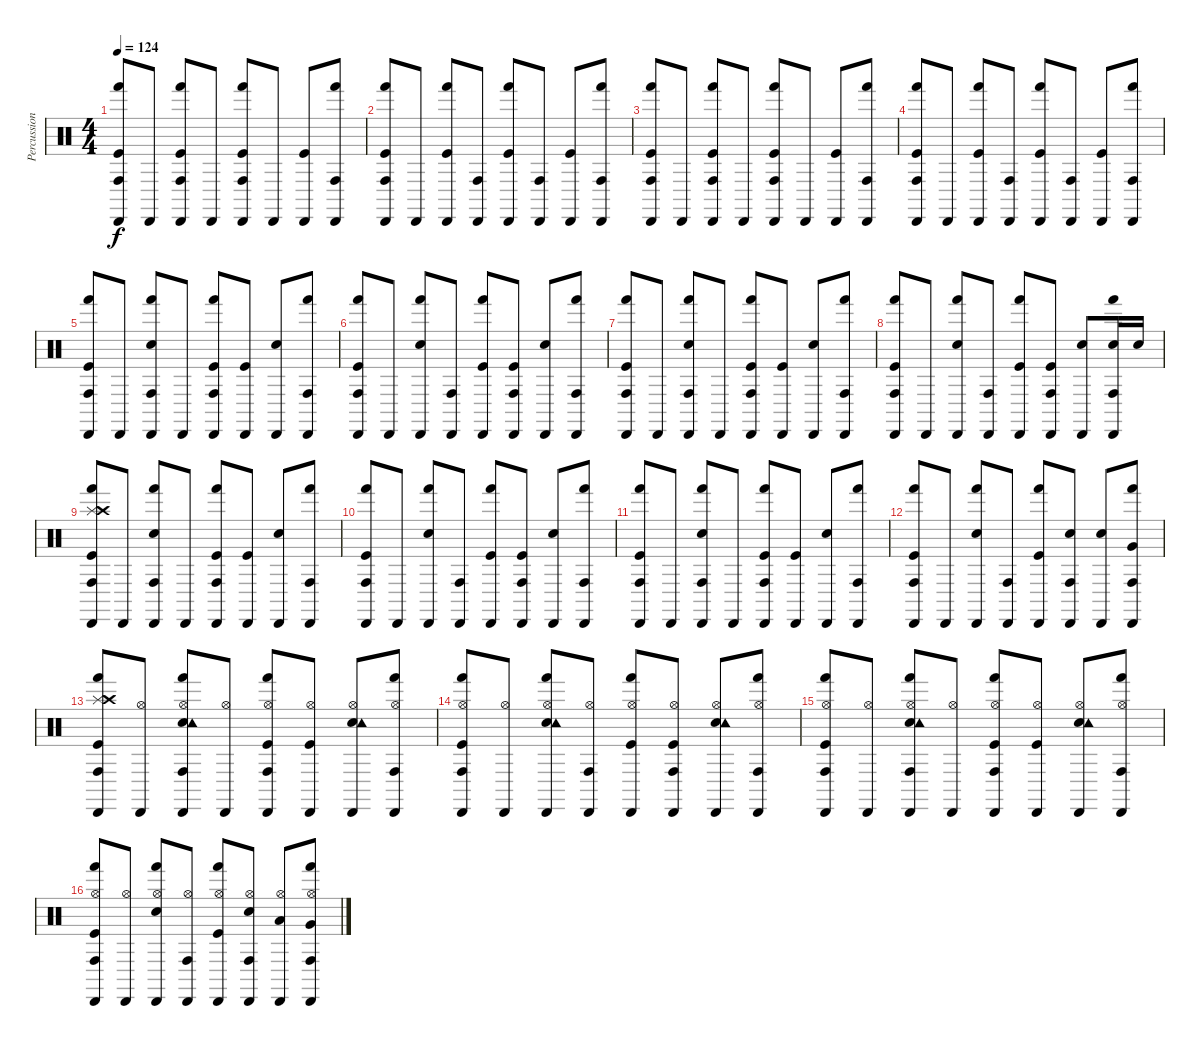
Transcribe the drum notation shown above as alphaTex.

\track ("Percussion" "Percussion") {instrument percussion}
\staff {score}
\articulation defaults
\ts (4 4)
\tempo 124
\clef neutral
\ks c
("Cabasa (hit)" "Kick (hit)" "Hand (hit)" "Conga high (hit)").8{dy f} "Cabasa (hit)".8 ("Cabasa (hit)" "Kick (hit)" "Hand (hit)" "Conga high (hit)").8 "Cabasa (hit)".8 ("Cabasa (hit)" "Kick (hit)" "Hand (hit)" "Conga high (hit)").8 "Cabasa (hit)".8 ("Cabasa (hit)" "Kick (hit)").8 ("Cabasa (hit)" "Hand (hit)" "Conga high (hit)").8 |
("Cabasa (hit)" "Kick (hit)" "Hand (hit)" "Conga high (hit)").8 "Cabasa (hit)".8 ("Cabasa (hit)" "Kick (hit)" "Hand (hit)").8 ("Cabasa (hit)" "Conga high (hit)").8 ("Cabasa (hit)" "Kick (hit)" "Hand (hit)").8 ("Cabasa (hit)" "Conga high (hit)").8 ("Cabasa (hit)" "Kick (hit)").8 ("Cabasa (hit)" "Hand (hit)" "Conga high (hit)").8 |
("Cabasa (hit)" "Kick (hit)" "Hand (hit)" "Conga high (hit)").8 "Cabasa (hit)".8 ("Cabasa (hit)" "Kick (hit)" "Hand (hit)" "Conga high (hit)").8 "Cabasa (hit)".8 ("Cabasa (hit)" "Kick (hit)" "Hand (hit)" "Conga high (hit)").8 "Cabasa (hit)".8 ("Cabasa (hit)" "Kick (hit)").8 ("Cabasa (hit)" "Hand (hit)" "Conga high (hit)").8 |
("Cabasa (hit)" "Kick (hit)" "Hand (hit)" "Conga high (hit)").8 "Cabasa (hit)".8 ("Cabasa (hit)" "Kick (hit)" "Hand (hit)").8 ("Cabasa (hit)" "Conga high (hit)").8 ("Cabasa (hit)" "Kick (hit)" "Hand (hit)").8 ("Cabasa (hit)" "Conga high (hit)").8 ("Cabasa (hit)" "Kick (hit)").8 ("Cabasa (hit)" "Hand (hit)" "Conga high (hit)").8 |
("Cabasa (hit)" "Kick (hit)" "Hand (hit)" "Conga high (hit)").8 "Cabasa (hit)".8 ("Cabasa (hit)" "Electric Snare (hit)" "Hand (hit)" "Conga high (hit)").8 "Cabasa (hit)".8 ("Cabasa (hit)" "Kick (hit)" "Hand (hit)" "Conga high (hit)").8 ("Cabasa (hit)" "Kick (hit)").8 ("Cabasa (hit)" "Electric Snare (hit)").8 ("Cabasa (hit)" "Hand (hit)" "Conga high (hit)").8 |
("Cabasa (hit)" "Kick (hit)" "Hand (hit)" "Conga high (hit)").8 "Cabasa (hit)".8 ("Cabasa (hit)" "Electric Snare (hit)" "Hand (hit)").8 ("Cabasa (hit)" "Conga high (hit)").8 ("Cabasa (hit)" "Kick (hit)" "Hand (hit)").8 ("Cabasa (hit)" "Kick (hit)" "Conga high (hit)").8 ("Cabasa (hit)" "Electric Snare (hit)").8 ("Cabasa (hit)" "Hand (hit)" "Conga high (hit)").8 |
("Cabasa (hit)" "Kick (hit)" "Hand (hit)" "Conga high (hit)").8 "Cabasa (hit)".8 ("Cabasa (hit)" "Electric Snare (hit)" "Hand (hit)" "Conga high (hit)").8 "Cabasa (hit)".8 ("Cabasa (hit)" "Kick (hit)" "Hand (hit)" "Conga high (hit)").8 ("Cabasa (hit)" "Kick (hit)").8 ("Cabasa (hit)" "Electric Snare (hit)").8 ("Cabasa (hit)" "Hand (hit)" "Conga high (hit)").8 |
("Cabasa (hit)" "Kick (hit)" "Hand (hit)" "Conga high (hit)").8 "Cabasa (hit)".8 ("Cabasa (hit)" "Electric Snare (hit)" "Hand (hit)").8 ("Cabasa (hit)" "Conga high (hit)").8 ("Cabasa (hit)" "Kick (hit)" "Hand (hit)").8 ("Cabasa (hit)" "Kick (hit)" "Conga high (hit)").8 ("Cabasa (hit)" "Electric Snare (hit)").8 ("Cabasa (hit)" "Snare (hit) 2" "Hand (hit)" "Conga high (hit)").16 "Snare (hit) 2".16 |
("Cabasa (hit)" "Kick (hit)" "Hand (hit)" "Conga high (hit)" "Splash (hit)" "Crash high (hit)").8 "Cabasa (hit)".8 ("Cabasa (hit)" "Electric Snare (hit)" "Hand (hit)" "Conga high (hit)").8 "Cabasa (hit)".8 ("Cabasa (hit)" "Kick (hit)" "Hand (hit)" "Conga high (hit)").8 ("Cabasa (hit)" "Kick (hit)").8 ("Cabasa (hit)" "Electric Snare (hit)").8 ("Cabasa (hit)" "Hand (hit)" "Conga high (hit)").8 |
("Cabasa (hit)" "Kick (hit)" "Hand (hit)" "Conga high (hit)").8 "Cabasa (hit)".8 ("Cabasa (hit)" "Electric Snare (hit)" "Hand (hit)").8 ("Cabasa (hit)" "Conga high (hit)").8 ("Cabasa (hit)" "Kick (hit)" "Hand (hit)").8 ("Cabasa (hit)" "Kick (hit)" "Conga high (hit)").8 ("Cabasa (hit)" "Electric Snare (hit)").8 ("Cabasa (hit)" "Hand (hit)" "Conga high (hit)").8 |
("Cabasa (hit)" "Kick (hit)" "Hand (hit)" "Conga high (hit)").8 "Cabasa (hit)".8 ("Cabasa (hit)" "Electric Snare (hit)" "Hand (hit)" "Conga high (hit)").8 "Cabasa (hit)".8 ("Cabasa (hit)" "Kick (hit)" "Hand (hit)" "Conga high (hit)").8 ("Cabasa (hit)" "Kick (hit)").8 ("Cabasa (hit)" "Electric Snare (hit)").8 ("Cabasa (hit)" "Hand (hit)" "Conga high (hit)").8 |
("Cabasa (hit)" "Kick (hit)" "Hand (hit)" "Conga high (hit)").8 "Cabasa (hit)".8 ("Cabasa (hit)" "Electric Snare (hit)" "Hand (hit)").8 ("Cabasa (hit)" "Conga high (hit)").8 ("Cabasa (hit)" "Kick (hit)" "Hand (hit)").8 ("Cabasa (hit)" "Electric Snare (hit)" "Conga high (hit)").8 ("Cabasa (hit)" "Electric Snare (hit)").8 ("Cabasa (hit)" "Very Low Tom (hit)" "Hand (hit)" "Conga high (hit)").8 |
("Cabasa (hit)" "Kick (hit)" "Hand (hit)" "Conga high (hit)" "Splash (hit)" "Crash high (hit)").8 ("Cabasa (hit)" "Hi-Hat (open)").8 ("Cabasa (hit)" "Electric Snare (hit)" "Hand (hit)" "Conga high (hit)" "Tambourine (hit)" "Hi-Hat (open)").8 ("Cabasa (hit)" "Hi-Hat (open)").8 ("Cabasa (hit)" "Kick (hit)" "Hand (hit)" "Conga high (hit)" "Hi-Hat (open)").8 ("Cabasa (hit)" "Kick (hit)" "Hi-Hat (open)").8 ("Cabasa (hit)" "Electric Snare (hit)" "Tambourine (hit)" "Hi-Hat (open)").8 ("Cabasa (hit)" "Hand (hit)" "Conga high (hit)" "Hi-Hat (open)").8 |
("Cabasa (hit)" "Kick (hit)" "Hand (hit)" "Conga high (hit)" "Hi-Hat (open)").8 ("Cabasa (hit)" "Hi-Hat (open)").8 ("Cabasa (hit)" "Electric Snare (hit)" "Hand (hit)" "Tambourine (hit)" "Hi-Hat (open)").8 ("Cabasa (hit)" "Conga high (hit)" "Hi-Hat (open)").8 ("Cabasa (hit)" "Kick (hit)" "Hand (hit)" "Hi-Hat (open)").8 ("Cabasa (hit)" "Kick (hit)" "Conga high (hit)" "Hi-Hat (open)").8 ("Cabasa (hit)" "Electric Snare (hit)" "Tambourine (hit)" "Hi-Hat (open)").8 ("Cabasa (hit)" "Hand (hit)" "Conga high (hit)" "Hi-Hat (open)").8 |
("Cabasa (hit)" "Kick (hit)" "Hand (hit)" "Conga high (hit)" "Hi-Hat (open)").8 ("Cabasa (hit)" "Hi-Hat (open)").8 ("Cabasa (hit)" "Electric Snare (hit)" "Hand (hit)" "Conga high (hit)" "Tambourine (hit)" "Hi-Hat (open)").8 ("Cabasa (hit)" "Hi-Hat (open)").8 ("Cabasa (hit)" "Kick (hit)" "Hand (hit)" "Conga high (hit)" "Hi-Hat (open)").8 ("Cabasa (hit)" "Kick (hit)" "Hi-Hat (open)").8 ("Cabasa (hit)" "Electric Snare (hit)" "Tambourine (hit)" "Hi-Hat (open)").8 ("Cabasa (hit)" "Hand (hit)" "Conga high (hit)" "Hi-Hat (open)").8 |
("Cabasa (hit)" "Kick (hit)" "Hand (hit)" "Conga high (hit)" "Hi-Hat (open)").8 ("Cabasa (hit)" "Hi-Hat (open)").8 ("Cabasa (hit)" "Electric Snare (hit)" "Hand (hit)" "Hi-Hat (open)").8 ("Cabasa (hit)" "Conga high (hit)" "Hi-Hat (open)").8 ("Cabasa (hit)" "Kick (hit)" "Hand (hit)" "Hi-Hat (open)").8 ("Cabasa (hit)" "Electric Snare (hit)" "Conga high (hit)" "Hi-Hat (open)").8 ("Cabasa (hit)" "Low Floor Tom (hit)" "Hi-Hat (open)").8 ("Cabasa (hit)" "Very Low Tom (hit)" "Hand (hit)" "Conga high (hit)" "Hi-Hat (open)").8
